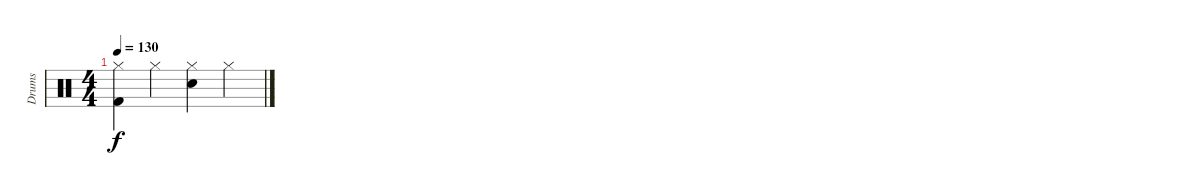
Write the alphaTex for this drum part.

\track ("Drums" "Drums") {instrument percussion}
\staff {score}
\articulation defaults
\ts (4 4)
\tempo 130
\clef neutral
\ks c
("Hi-Hat (closed)" "Kick (hit) 2").4{dy f} "Hi-Hat (closed)".4 ("Hi-Hat (closed)" "Electric Snare (hit)").4 "Hi-Hat (closed)".4
